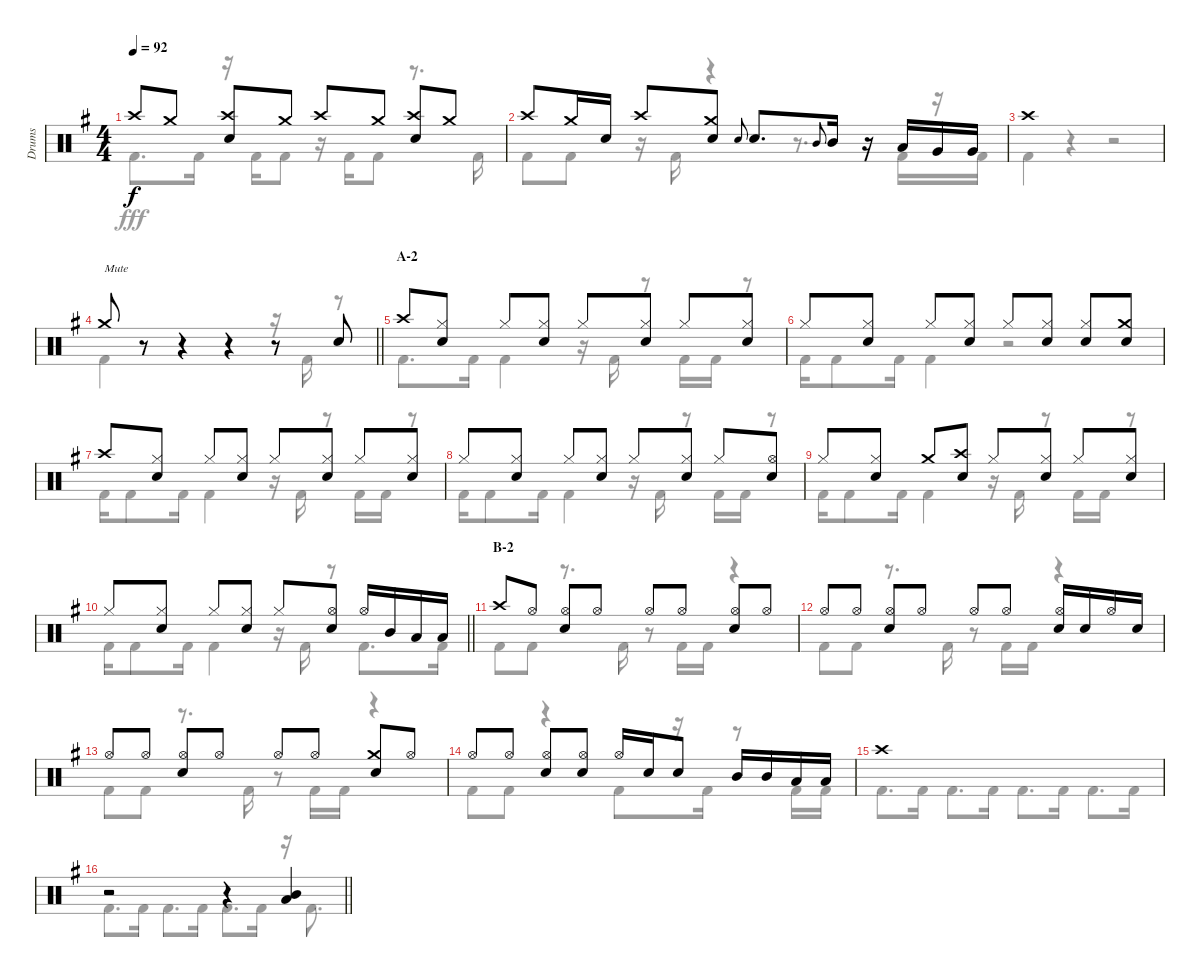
\track ("Drums" "Drums") {instrument percussion}
\staff {score}
\articulation defaults
\voice
\ts (4 4)
\tempo 92
\clef neutral
\ks eminor "Crash high (hit)".8{dy f} "Crash medium (hit)".8
("Crash high (hit)" "Snare (hit) 2").8 "Crash medium (hit)".8 "Crash high (hit)".8 "Crash medium (hit)".8 ("Crash high (hit)" "Snare (hit) 2").8 "Crash medium (hit)".8 |
"Crash high (hit)".8 "Crash medium (hit)".16 "Snare (hit) 2".16 "Crash high (hit)".8 ("Crash medium (hit)" "Snare (hit) 2").8 "Snare (hit) 2".8{gr onbeat} "Snare (hit) 2".8{d} "Mid Tom (hit)".8{gr onbeat} "Mid Tom (hit)".16 r.16 "Low Tom (hit)".16 "Very Low Tom (hit)".16 "Very Low Tom (hit)".16 |
"Crash high (hit)".1 |
\barLineRight lightlight "Crash medium (hit)".8{txt "Mute"}
r.8 r.4 r.4 r.8 "Snare (hit) 2".8 |
\section ("" "A-2")
"Crash high (hit)".8 ("Hi-Hat (closed)" "Snare (hit) 2").8 "Hi-Hat (closed)".8 ("Hi-Hat (closed)" "Snare (hit) 2").8 "Hi-Hat (closed)".8 ("Hi-Hat (closed)" "Snare (hit) 2").8 "Hi-Hat (closed)".8 ("Hi-Hat (closed)" "Snare (hit) 2").8 |
"Hi-Hat (closed)".8 ("Hi-Hat (closed)" "Snare (hit) 2").8 "Hi-Hat (closed)".8 ("Hi-Hat (closed)" "Snare (hit) 2").8 "Hi-Hat (closed)".8 ("Hi-Hat (closed)" "Snare (hit) 2").8 ("Hi-Hat (closed)" "Snare (hit) 2").8 ("Crash medium (hit)" "Snare (hit) 2").8 |
"Crash high (hit)".8 ("Hi-Hat (closed)" "Snare (hit) 2").8 "Hi-Hat (closed)".8 ("Hi-Hat (closed)" "Snare (hit) 2").8 "Hi-Hat (closed)".8 ("Hi-Hat (closed)" "Snare (hit) 2").8 "Hi-Hat (closed)".8 ("Hi-Hat (closed)" "Snare (hit) 2").8 |
"Hi-Hat (closed)".8 ("Hi-Hat (closed)" "Snare (hit) 2").8 "Hi-Hat (closed)".8 ("Hi-Hat (closed)" "Snare (hit) 2").8 "Hi-Hat (closed)".8 ("Hi-Hat (closed)" "Snare (hit) 2").8 "Hi-Hat (closed)".8 ("Hi-Hat (open)" "Snare (hit) 2").8 |
"Hi-Hat (closed)".8 ("Hi-Hat (closed)" "Snare (hit) 2").8 "Crash medium (hit)".8 ("Crash high (hit)" "Snare (hit) 2").8 "Hi-Hat (closed)".8 ("Hi-Hat (closed)" "Snare (hit) 2").8 "Hi-Hat (closed)".8 ("Hi-Hat (closed)" "Snare (hit) 2").8 |
\barLineRight lightlight "Hi-Hat (closed)".8
("Hi-Hat (closed)" "Snare (hit) 2").8 "Hi-Hat (closed)".8 ("Hi-Hat (closed)" "Snare (hit) 2").8 "Hi-Hat (closed)".8 ("Hi-Hat (open)" "Snare (hit) 2").8 "Hi-Hat (open)".16 "Mid Tom (hit)".16 "Low Tom (hit)".16 "Low Tom (hit)".16 |
\section ("" "B-2")
"Crash high (hit)".8 "Hi-Hat (open)".8 ("Hi-Hat (open)" "Snare (hit) 2").8 "Hi-Hat (open)".8 "Hi-Hat (open)".8 "Hi-Hat (open)".8 ("Hi-Hat (open)" "Snare (hit) 2").8 "Hi-Hat (open)".8 |
"Hi-Hat (open)".8 "Hi-Hat (open)".8 ("Hi-Hat (open)" "Snare (hit) 2").8 "Hi-Hat (open)".8 "Hi-Hat (open)".8 "Hi-Hat (open)".8 ("Hi-Hat (open)" "Snare (hit) 2").16 "Snare (hit) 2".16 "Hi-Hat (open)".16 "Snare (hit) 2".16 |
"Hi-Hat (open)".8 "Hi-Hat (open)".8 ("Hi-Hat (open)" "Snare (hit) 2").8 "Hi-Hat (open)".8 "Hi-Hat (open)".8 "Hi-Hat (open)".8 ("Crash medium (hit)" "Snare (hit) 2").8 "Hi-Hat (open)".8 |
"Hi-Hat (open)".8 "Hi-Hat (open)".8 ("Hi-Hat (open)" "Snare (hit) 2").8 ("Hi-Hat (open)" "Snare (hit) 2").8 "Hi-Hat (open)".16 "Snare (hit) 2".16 "Snare (hit) 2".8 "Mid Tom (hit)".16 "Mid Tom (hit)".16 "Low Tom (hit)".16 "Low Tom (hit)".16 |
"Crash high (hit)".1 |
\barLineRight lightlight
r.2 r.4 ("Mid Tom (hit)" "Low Tom (hit)").4
\voice
\clef neutral
\ottava regular
\simile none
\ks eminor "Kick (hit) 2".8{d dy fff} "Kick (hit) 2".16
r.16 "Kick (hit) 2".16 "Kick (hit) 2".8 r.16 "Kick (hit) 2".16 "Kick (hit) 2".8 r.8{d} "Kick (hit) 2".16 |
"Kick (hit) 2".8 "Kick (hit) 2".8 r.16 "Kick (hit) 2".16 r.4 r.8{d} "Kick (hit) 2".16 r.16 "Kick (hit) 2".16 |
"Kick (hit) 2".4 r.4 r.2 |
\barLineRight lightlight "Kick (hit) 2".4
r.4 r.4 r.16 "Kick (hit) 2".16 r.8 |
"Kick (hit) 2".8{d} "Kick (hit) 2".16 "Kick (hit) 2".4 r.16 "Kick (hit) 2".16 r.8 "Kick (hit) 2".16 "Kick (hit) 2".16 r.8 |
"Kick (hit) 2".16 "Kick (hit) 2".8 "Kick (hit) 2".16 "Kick (hit) 2".4 r.2 |
"Kick (hit) 2".16 "Kick (hit) 2".8 "Kick (hit) 2".16 "Kick (hit) 2".4 r.16 "Kick (hit) 2".16 r.8 "Kick (hit) 2".16 "Kick (hit) 2".16 r.8 |
"Kick (hit) 2".16 "Kick (hit) 2".8 "Kick (hit) 2".16 "Kick (hit) 2".4 r.16 "Kick (hit) 2".16 r.8 "Kick (hit) 2".16 "Kick (hit) 2".16 r.8 |
"Kick (hit) 2".16 "Kick (hit) 2".8 "Kick (hit) 2".16 "Kick (hit) 2".4 r.16 "Kick (hit) 2".16 r.8 "Kick (hit) 2".16 "Kick (hit) 2".16 r.8 |
\barLineRight lightlight "Kick (hit) 2".16 "Kick (hit) 2".8 "Kick (hit) 2".16 "Kick (hit) 2".4
r.16 "Kick (hit) 2".16 r.8 "Kick (hit) 2".8{d} "Kick (hit) 2".16 |
"Kick (hit) 2".8 "Kick (hit) 2".8 r.8{d} "Kick (hit) 2".16 r.8 "Kick (hit) 2".16 "Kick (hit) 2".16 r.4 |
"Kick (hit) 2".8 "Kick (hit) 2".8 r.8{d} "Kick (hit) 2".16 r.8 "Kick (hit) 2".16 "Kick (hit) 2".16 r.4 |
"Kick (hit) 2".8 "Kick (hit) 2".8 r.8{d} "Kick (hit) 2".16 r.8 "Kick (hit) 2".16 "Kick (hit) 2".16 r.4 |
"Kick (hit) 2".8 "Kick (hit) 2".8 r.4 "Kick (hit) 2".8 r.16 "Kick (hit) 2".16 r.8 "Kick (hit) 2".16 "Kick (hit) 2".16 |
"Kick (hit) 2".8{d} "Kick (hit) 2".16 "Kick (hit) 2".8{d} "Kick (hit) 2".16 "Kick (hit) 2".8{d} "Kick (hit) 2".16 "Kick (hit) 2".8{d} "Kick (hit) 2".16 |
\barLineRight lightlight "Kick (hit) 2".8{d} "Kick (hit) 2".16 "Kick (hit) 2".8{d} "Kick (hit) 2".16 "Kick (hit) 2".8{d} "Kick (hit) 2".16
r.16 "Kick (hit) 2".8{d}
